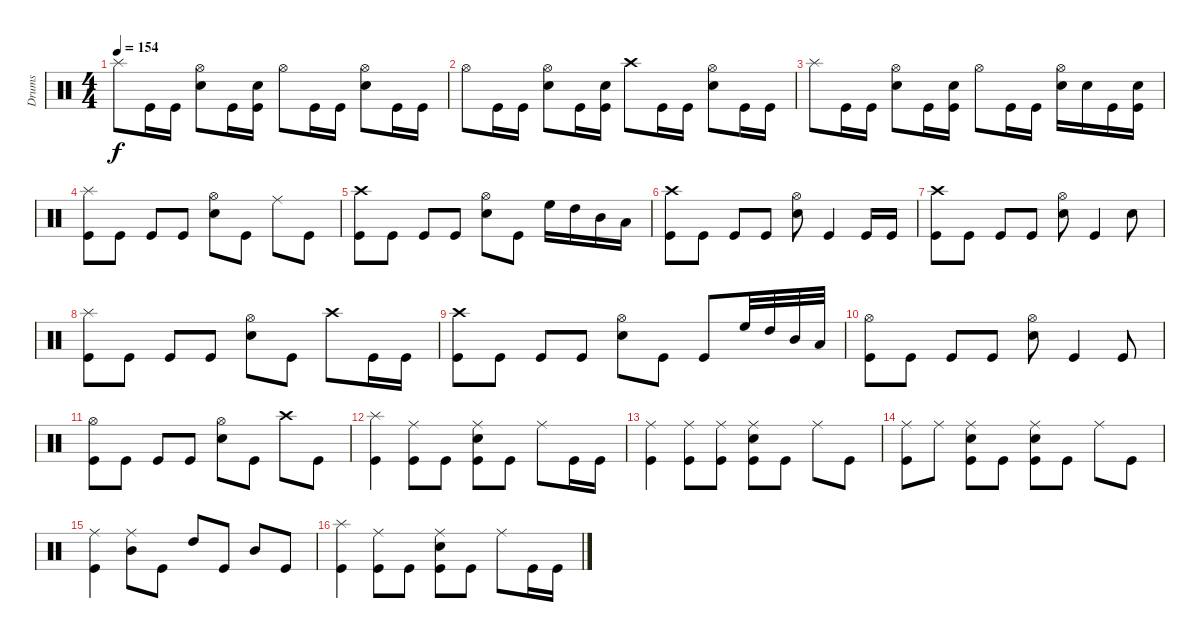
\track ("Drums" "Drums") {instrument percussion}
\staff {score}
\articulation defaults
\ts (4 4)
\tempo 154
\clef neutral
\ks c "Splash (hit)".8{dy f} "Kick (hit)".16 "Kick (hit)".16
("Hi-Hat (open)" "Snare (hit) 2").8 "Kick (hit)".16 ("Snare (hit) 2" "Kick (hit)").16 "Hi-Hat (open)".8 "Kick (hit)".16 "Kick (hit)".16 ("Hi-Hat (open)" "Snare (hit) 2").8 "Kick (hit)".16 "Kick (hit)".16 |
"Hi-Hat (open)".8 "Kick (hit)".16 "Kick (hit)".16 ("Hi-Hat (open)" "Snare (hit) 2").8 "Kick (hit)".16 ("Snare (hit) 2" "Kick (hit)").16 "Crash high (hit)".8 "Kick (hit)".16 "Kick (hit)".16 ("Hi-Hat (open)" "Snare (hit) 2").8 "Kick (hit)".16 "Kick (hit)".16 |
"Splash (hit)".8 "Kick (hit)".16 "Kick (hit)".16 ("Hi-Hat (open)" "Snare (hit) 2").8 "Kick (hit)".16 ("Snare (hit) 2" "Kick (hit)").16 "Hi-Hat (open)".8 "Kick (hit)".16 "Kick (hit)".16 ("Hi-Hat (open)" "Snare (hit) 2").16 "Snare (hit) 2".16 "Kick (hit)".16 ("Snare (hit) 2" "Kick (hit)").16 |
("Splash (hit)" "Kick (hit)").8 "Kick (hit)".8 "Kick (hit)".8 "Kick (hit)".8 ("Hi-Hat (open)" "Snare (hit) 2").8 "Kick (hit)".8 "Ride (middle)".8 "Kick (hit)".8 |
("Crash high (hit)" "Kick (hit)").8 "Kick (hit)".8 "Kick (hit)".8 "Kick (hit)".8 ("Hi-Hat (open)" "Snare (hit) 2").8 "Kick (hit)".8 "High Floor Tom (hit)".16 "High Tom (hit)".16 "Mid Tom (hit)".16 "Low Tom (hit)".16 |
("Crash high (hit)" "Kick (hit)").8 "Kick (hit)".8 "Kick (hit)".8 "Kick (hit)".8 ("Hi-Hat (open)" "Snare (hit) 2").8 "Kick (hit)".4 "Kick (hit)".16 "Kick (hit)".16 |
("Crash high (hit)" "Kick (hit)").8 "Kick (hit)".8 "Kick (hit)".8 "Kick (hit)".8 ("Hi-Hat (open)" "Snare (hit) 2").8 "Kick (hit)".4 "Snare (hit) 2".8 |
("Splash (hit)" "Kick (hit)").8 "Kick (hit)".8 "Kick (hit)".8 "Kick (hit)".8 ("Hi-Hat (open)" "Snare (hit) 2").8 "Kick (hit)".8 "Crash high (hit)".8 "Kick (hit)".16 "Kick (hit)".16 |
("Crash high (hit)" "Kick (hit)").8 "Kick (hit)".8 "Kick (hit)".8 "Kick (hit)".8 ("Hi-Hat (open)" "Snare (hit) 2").8 "Kick (hit)".8 "Kick (hit)".8 "High Floor Tom (hit)".32 "High Tom (hit)".32 "Mid Tom (hit)".32 "Low Tom (hit)".32 |
("Hi-Hat (open)" "Kick (hit)").8 "Kick (hit)".8 "Kick (hit)".8 "Kick (hit)".8 ("Hi-Hat (open)" "Snare (hit) 2").8 "Kick (hit)".4 "Kick (hit)".8 |
("Hi-Hat (open)" "Kick (hit)").8 "Kick (hit)".8 "Kick (hit)".8 "Kick (hit)".8 ("Hi-Hat (open)" "Snare (hit) 2").8 "Kick (hit)".8 "Crash high (hit)".8 "Kick (hit)".8 |
("Splash (hit)" "Kick (hit)").4 ("Ride (middle)" "Kick (hit)").8 "Kick (hit)".8 ("Ride (middle)" "Snare (hit) 2" "Kick (hit)").8 "Kick (hit)".8 "Ride (middle)".8 "Kick (hit)".16 "Kick (hit)".16 |
("Ride (middle)" "Kick (hit)").4 ("Ride (middle)" "Kick (hit)").8 ("Ride (middle)" "Kick (hit)").8 ("Ride (middle)" "Snare (hit) 2" "Kick (hit)").8 "Kick (hit)".8 "Ride (middle)".8 "Kick (hit)".8 |
("Ride (middle)" "Kick (hit)").8 "Ride (middle)".8 ("Ride (middle)" "Snare (hit) 2" "Kick (hit)").8 "Kick (hit)".8 ("Ride (middle)" "Snare (hit) 2" "Kick (hit)").8 "Kick (hit)".8 "Ride (middle)".8 "Kick (hit)".8 |
("Ride (middle)" "Kick (hit)").4 ("Ride (middle)" "Mid Tom (hit)").8 "Kick (hit)".8 "High Tom (hit)".8 "Kick (hit)".8 "Mid Tom (hit)".8 "Kick (hit)".8 |
("Splash (hit)" "Kick (hit)").4 ("Ride (middle)" "Kick (hit)").8 "Kick (hit)".8 ("Ride (middle)" "Snare (hit) 2" "Kick (hit)").8 "Kick (hit)".8 "Ride (middle)".8 "Kick (hit)".16 "Kick (hit)".16
